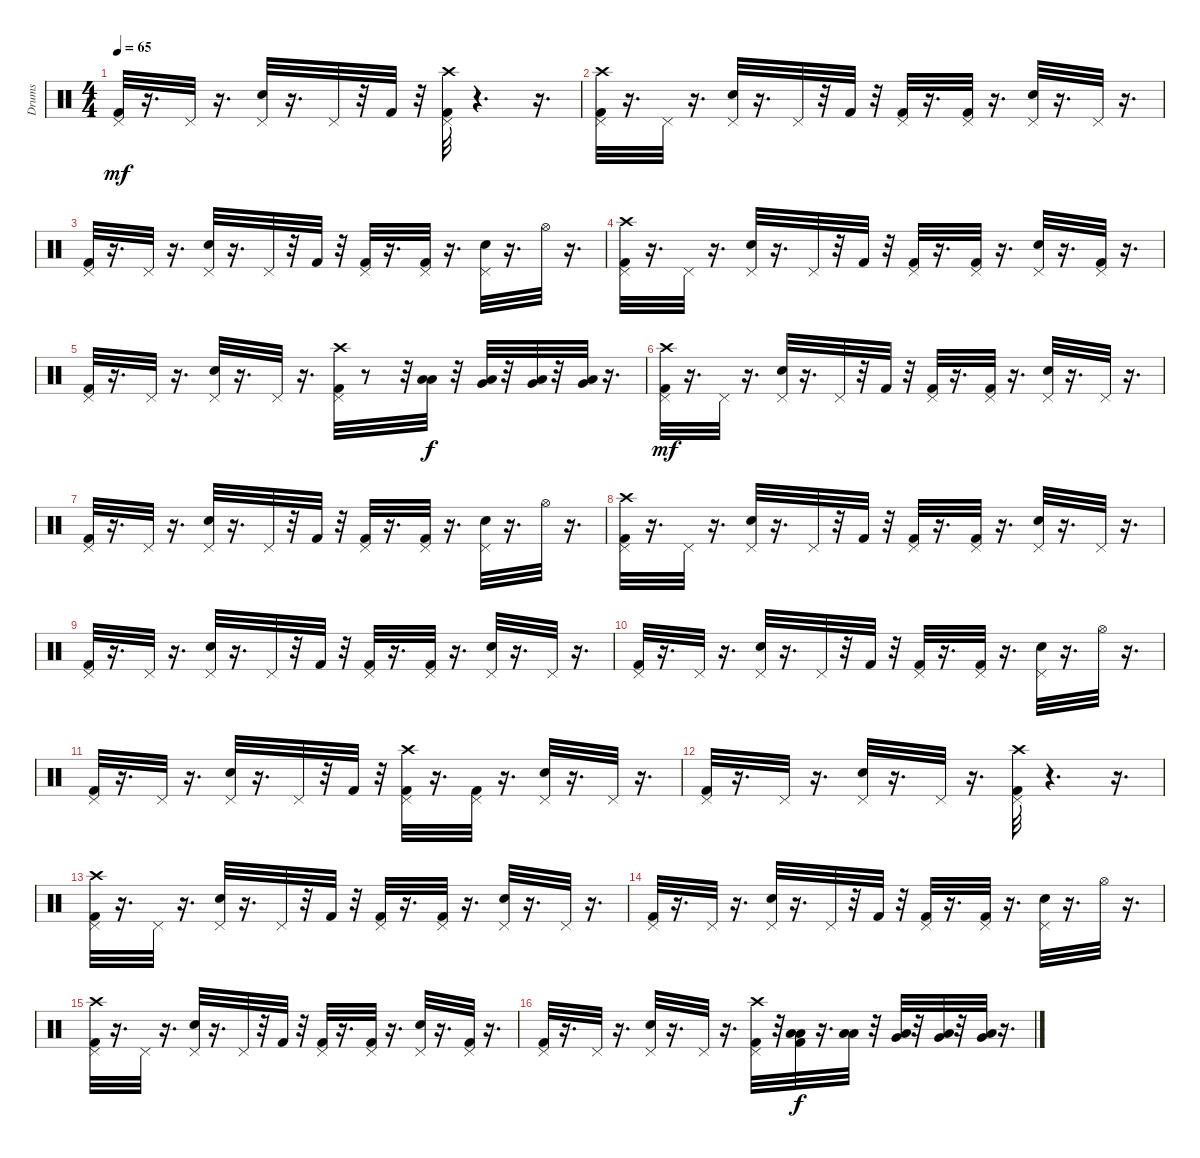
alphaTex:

\track ("Drums" "Drums") {instrument percussion}
\staff {score}
\articulation defaults
\ts (4 4)
\tempo 65
\clef neutral
\ks c
("Pedal Hi-Hat (hit)" "Kick (hit) 2").32{dy mf} r.16{d} "Pedal Hi-Hat (hit)".32 r.16{d} ("Snare (hit) 2" "Pedal Hi-Hat (hit)").32 r.16{d} "Pedal Hi-Hat (hit)".32 r.32 "Kick (hit) 2".32 r.32 ("Crash high (hit)" "Pedal Hi-Hat (hit)" "Kick (hit) 2").32 r.4{d} r.16{d} |
("Crash high (hit)" "Pedal Hi-Hat (hit)" "Kick (hit) 2").32 r.16{d} "Pedal Hi-Hat (hit)".32 r.16{d} ("Snare (hit) 2" "Pedal Hi-Hat (hit)").32 r.16{d} "Pedal Hi-Hat (hit)".32 r.32 "Kick (hit) 2".32 r.32 ("Pedal Hi-Hat (hit)" "Kick (hit) 2").32 r.16{d} ("Pedal Hi-Hat (hit)" "Kick (hit) 2").32 r.16{d} ("Pedal Hi-Hat (hit)" "Snare (hit) 2").32 r.16{d} "Pedal Hi-Hat (hit)".32 r.16{d} |
("Pedal Hi-Hat (hit)" "Kick (hit) 2").32 r.16{d} "Pedal Hi-Hat (hit)".32 r.16{d} ("Snare (hit) 2" "Pedal Hi-Hat (hit)").32 r.16{d} "Pedal Hi-Hat (hit)".32 r.32 "Kick (hit) 2".32 r.32 ("Pedal Hi-Hat (hit)" "Kick (hit) 2").32 r.16{d} ("Pedal Hi-Hat (hit)" "Kick (hit) 2").32 r.16{d} ("Pedal Hi-Hat (hit)" "Snare (hit) 2").32 r.16{d} "Hi-Hat (open)".32 r.16{d} |
("Crash high (hit)" "Pedal Hi-Hat (hit)" "Kick (hit) 2").32 r.16{d} "Pedal Hi-Hat (hit)".32 r.16{d} ("Snare (hit) 2" "Pedal Hi-Hat (hit)").32 r.16{d} "Pedal Hi-Hat (hit)".32 r.32 "Kick (hit) 2".32 r.32 ("Pedal Hi-Hat (hit)" "Kick (hit) 2").32 r.16{d} ("Pedal Hi-Hat (hit)" "Kick (hit) 2").32 r.16{d} ("Pedal Hi-Hat (hit)" "Snare (hit) 2").32 r.16{d} ("Kick (hit) 2" "Pedal Hi-Hat (hit)").32 r.16{d} |
("Pedal Hi-Hat (hit)" "Kick (hit) 2").32 r.16{d} "Pedal Hi-Hat (hit)".32 r.16{d} ("Snare (hit) 2" "Pedal Hi-Hat (hit)").32 r.16{d} "Pedal Hi-Hat (hit)".32 r.16{d} ("Crash high (hit)" "Pedal Hi-Hat (hit)" "Kick (hit) 2").32 r.8 r.32 ("Low Tom (hit)" "Low Floor Tom (hit)").32{dy f} r.32 ("Very Low Tom (hit)" "Low Floor Tom (hit)").32 r.32 ("Very Low Tom (hit)" "Low Floor Tom (hit)").32 r.32 ("Very Low Tom (hit)" "Low Floor Tom (hit)").32 r.16{d} |
("Crash high (hit)" "Pedal Hi-Hat (hit)" "Kick (hit) 2").32{dy mf} r.16{d} "Pedal Hi-Hat (hit)".32 r.16{d} ("Snare (hit) 2" "Pedal Hi-Hat (hit)").32 r.16{d} "Pedal Hi-Hat (hit)".32 r.32 "Kick (hit) 2".32 r.32 ("Pedal Hi-Hat (hit)" "Kick (hit) 2").32 r.16{d} ("Pedal Hi-Hat (hit)" "Kick (hit) 2").32 r.16{d} ("Pedal Hi-Hat (hit)" "Snare (hit) 2").32 r.16{d} "Pedal Hi-Hat (hit)".32 r.16{d} |
("Pedal Hi-Hat (hit)" "Kick (hit) 2").32 r.16{d} "Pedal Hi-Hat (hit)".32 r.16{d} ("Snare (hit) 2" "Pedal Hi-Hat (hit)").32 r.16{d} "Pedal Hi-Hat (hit)".32 r.32 "Kick (hit) 2".32 r.32 ("Pedal Hi-Hat (hit)" "Kick (hit) 2").32 r.16{d} ("Pedal Hi-Hat (hit)" "Kick (hit) 2").32 r.16{d} ("Pedal Hi-Hat (hit)" "Snare (hit) 2").32 r.16{d} "Hi-Hat (open)".32 r.16{d} |
("Crash high (hit)" "Pedal Hi-Hat (hit)" "Kick (hit) 2").32 r.16{d} "Pedal Hi-Hat (hit)".32 r.16{d} ("Snare (hit) 2" "Pedal Hi-Hat (hit)").32 r.16{d} "Pedal Hi-Hat (hit)".32 r.32 "Kick (hit) 2".32 r.32 ("Pedal Hi-Hat (hit)" "Kick (hit) 2").32 r.16{d} ("Pedal Hi-Hat (hit)" "Kick (hit) 2").32 r.16{d} ("Pedal Hi-Hat (hit)" "Snare (hit) 2").32 r.16{d} "Pedal Hi-Hat (hit)".32 r.16{d} |
("Pedal Hi-Hat (hit)" "Kick (hit) 2").32 r.16{d} "Pedal Hi-Hat (hit)".32 r.16{d} ("Snare (hit) 2" "Pedal Hi-Hat (hit)").32 r.16{d} "Pedal Hi-Hat (hit)".32 r.32 "Kick (hit) 2".32 r.32 ("Pedal Hi-Hat (hit)" "Kick (hit) 2").32 r.16{d} ("Pedal Hi-Hat (hit)" "Kick (hit) 2").32 r.16{d} ("Pedal Hi-Hat (hit)" "Snare (hit) 2").32 r.16{d} "Pedal Hi-Hat (hit)".32 r.16{d} |
("Pedal Hi-Hat (hit)" "Kick (hit) 2").32 r.16{d} "Pedal Hi-Hat (hit)".32 r.16{d} ("Snare (hit) 2" "Pedal Hi-Hat (hit)").32 r.16{d} "Pedal Hi-Hat (hit)".32 r.32 "Kick (hit) 2".32 r.32 ("Pedal Hi-Hat (hit)" "Kick (hit) 2").32 r.16{d} ("Pedal Hi-Hat (hit)" "Kick (hit) 2").32 r.16{d} ("Pedal Hi-Hat (hit)" "Snare (hit) 2").32 r.16{d} "Hi-Hat (open)".32 r.16{d} |
("Pedal Hi-Hat (hit)" "Kick (hit) 2").32 r.16{d} "Pedal Hi-Hat (hit)".32 r.16{d} ("Snare (hit) 2" "Pedal Hi-Hat (hit)").32 r.16{d} "Pedal Hi-Hat (hit)".32 r.32 "Kick (hit) 2".32 r.32 ("Crash high (hit)" "Pedal Hi-Hat (hit)" "Kick (hit) 2").32 r.16{d} ("Pedal Hi-Hat (hit)" "Kick (hit) 2").32 r.16{d} ("Pedal Hi-Hat (hit)" "Snare (hit) 2").32 r.16{d} "Pedal Hi-Hat (hit)".32 r.16{d} |
("Pedal Hi-Hat (hit)" "Kick (hit) 2").32 r.16{d} "Pedal Hi-Hat (hit)".32 r.16{d} ("Snare (hit) 2" "Pedal Hi-Hat (hit)").32 r.16{d} "Pedal Hi-Hat (hit)".32 r.16{d} ("Crash high (hit)" "Pedal Hi-Hat (hit)" "Kick (hit) 2").32 r.4{d} r.16{d} |
("Crash high (hit)" "Pedal Hi-Hat (hit)" "Kick (hit) 2").32 r.16{d} "Pedal Hi-Hat (hit)".32 r.16{d} ("Snare (hit) 2" "Pedal Hi-Hat (hit)").32 r.16{d} "Pedal Hi-Hat (hit)".32 r.32 "Kick (hit) 2".32 r.32 ("Pedal Hi-Hat (hit)" "Kick (hit) 2").32 r.16{d} ("Pedal Hi-Hat (hit)" "Kick (hit) 2").32 r.16{d} ("Pedal Hi-Hat (hit)" "Snare (hit) 2").32 r.16{d} "Pedal Hi-Hat (hit)".32 r.16{d} |
("Pedal Hi-Hat (hit)" "Kick (hit) 2").32 r.16{d} "Pedal Hi-Hat (hit)".32 r.16{d} ("Snare (hit) 2" "Pedal Hi-Hat (hit)").32 r.16{d} "Pedal Hi-Hat (hit)".32 r.32 "Kick (hit) 2".32 r.32 ("Pedal Hi-Hat (hit)" "Kick (hit) 2").32 r.16{d} ("Pedal Hi-Hat (hit)" "Kick (hit) 2").32 r.16{d} ("Pedal Hi-Hat (hit)" "Snare (hit) 2").32 r.16{d} "Hi-Hat (open)".32 r.16{d} |
("Crash high (hit)" "Pedal Hi-Hat (hit)" "Kick (hit) 2").32 r.16{d} "Pedal Hi-Hat (hit)".32 r.16{d} ("Snare (hit) 2" "Pedal Hi-Hat (hit)").32 r.16{d} "Pedal Hi-Hat (hit)".32 r.32 "Kick (hit) 2".32 r.32 ("Pedal Hi-Hat (hit)" "Kick (hit) 2").32 r.16{d} ("Pedal Hi-Hat (hit)" "Kick (hit) 2").32 r.16{d} ("Pedal Hi-Hat (hit)" "Snare (hit) 2").32 r.16{d} ("Kick (hit) 2" "Pedal Hi-Hat (hit)").32 r.16{d} |
("Pedal Hi-Hat (hit)" "Kick (hit) 2").32 r.16{d} "Pedal Hi-Hat (hit)".32 r.16{d} ("Snare (hit) 2" "Pedal Hi-Hat (hit)").32 r.16{d} "Pedal Hi-Hat (hit)".32 r.16{d} ("Crash high (hit)" "Pedal Hi-Hat (hit)" "Kick (hit) 2").32 r.32 ("Low Floor Tom (hit)" "Kick (hit) 2" "Low Tom (hit)").32{dy f} r.16{d} ("Low Tom (hit)" "Low Floor Tom (hit)").32 r.32 ("Very Low Tom (hit)" "Low Floor Tom (hit)").32 r.32 ("Very Low Tom (hit)" "Low Floor Tom (hit)").32 r.32 ("Very Low Tom (hit)" "Low Floor Tom (hit)").32 r.16{d}
